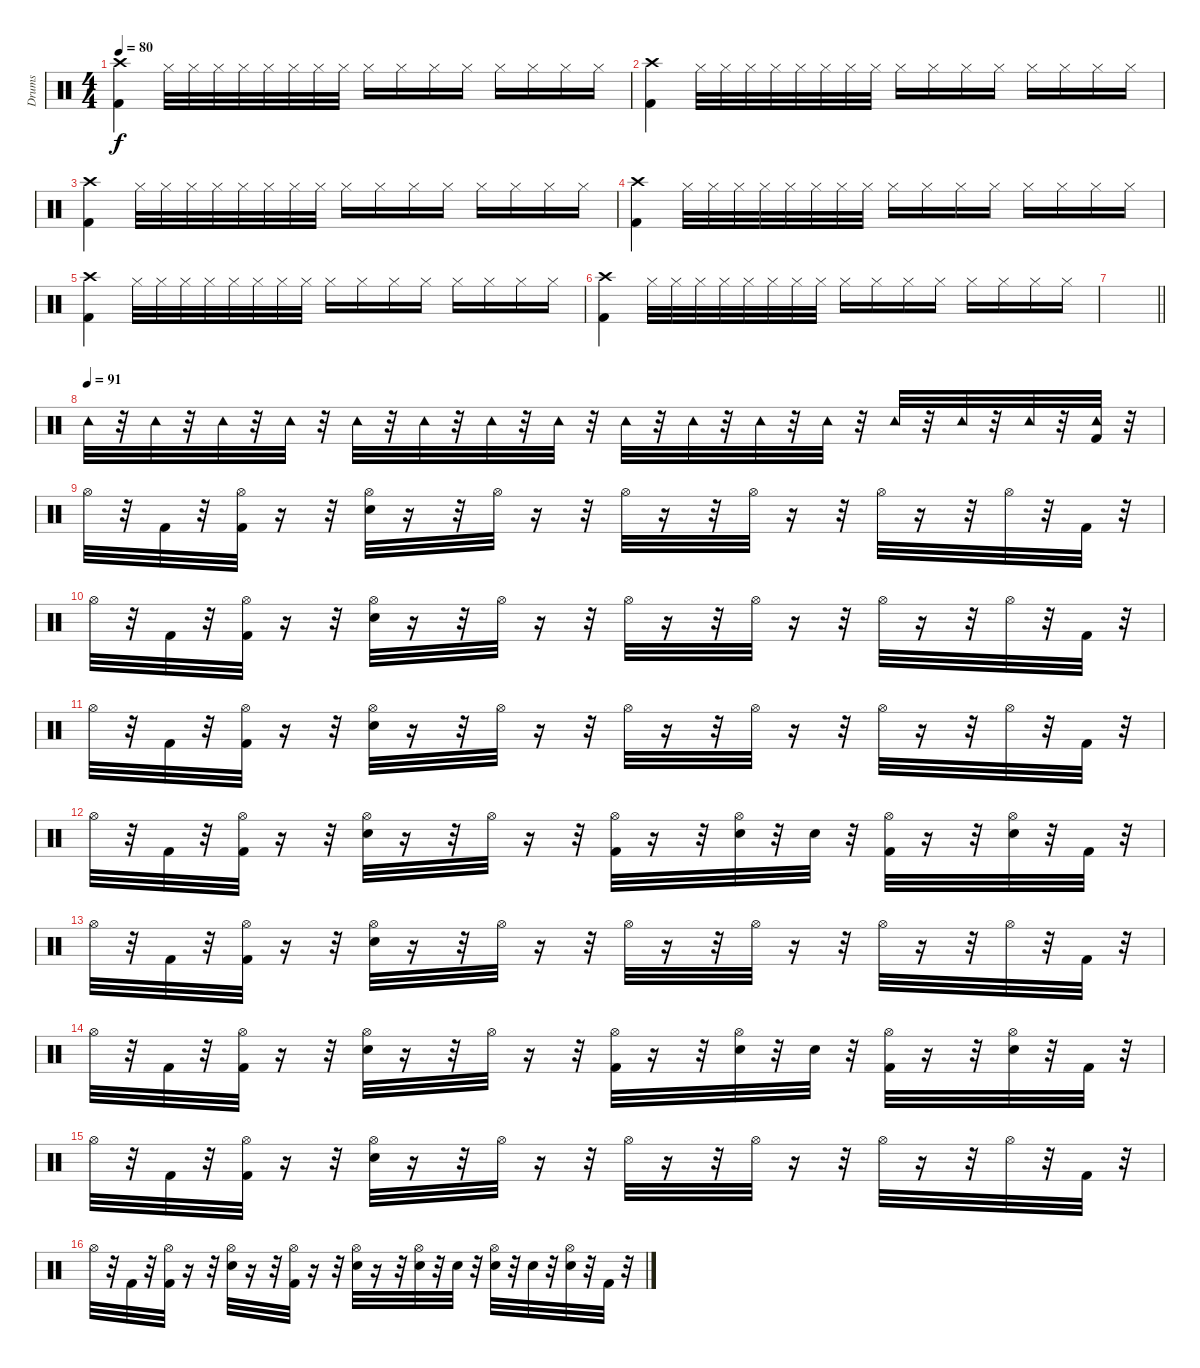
\track ("Drums" "Drums") {instrument percussion}
\staff {score}
\articulation defaults
\ts (4 4)
\tempo 80
\clef neutral
\ks c
("Crash high (hit)" "Kick (hit) 2").4{dy f} "Hi-Hat (closed)".32 "Hi-Hat (closed)".32 "Hi-Hat (closed)".32 "Hi-Hat (closed)".32 "Hi-Hat (closed)".32 "Hi-Hat (closed)".32 "Hi-Hat (closed)".32 "Hi-Hat (closed)".32 "Hi-Hat (closed)".16 "Hi-Hat (closed)".16 "Hi-Hat (closed)".16 "Hi-Hat (closed)".16 "Hi-Hat (closed)".16 "Hi-Hat (closed)".16 "Hi-Hat (closed)".16 "Hi-Hat (closed)".16 |
("Crash high (hit)" "Kick (hit) 2").4 "Hi-Hat (closed)".32 "Hi-Hat (closed)".32 "Hi-Hat (closed)".32 "Hi-Hat (closed)".32 "Hi-Hat (closed)".32 "Hi-Hat (closed)".32 "Hi-Hat (closed)".32 "Hi-Hat (closed)".32 "Hi-Hat (closed)".16 "Hi-Hat (closed)".16 "Hi-Hat (closed)".16 "Hi-Hat (closed)".16 "Hi-Hat (closed)".16 "Hi-Hat (closed)".16 "Hi-Hat (closed)".16 "Hi-Hat (closed)".16 |
("Crash high (hit)" "Kick (hit) 2").4 "Hi-Hat (closed)".32 "Hi-Hat (closed)".32 "Hi-Hat (closed)".32 "Hi-Hat (closed)".32 "Hi-Hat (closed)".32 "Hi-Hat (closed)".32 "Hi-Hat (closed)".32 "Hi-Hat (closed)".32 "Hi-Hat (closed)".16 "Hi-Hat (closed)".16 "Hi-Hat (closed)".16 "Hi-Hat (closed)".16 "Hi-Hat (closed)".16 "Hi-Hat (closed)".16 "Hi-Hat (closed)".16 "Hi-Hat (closed)".16 |
("Crash high (hit)" "Kick (hit) 2").4 "Hi-Hat (closed)".32 "Hi-Hat (closed)".32 "Hi-Hat (closed)".32 "Hi-Hat (closed)".32 "Hi-Hat (closed)".32 "Hi-Hat (closed)".32 "Hi-Hat (closed)".32 "Hi-Hat (closed)".32 "Hi-Hat (closed)".16 "Hi-Hat (closed)".16 "Hi-Hat (closed)".16 "Hi-Hat (closed)".16 "Hi-Hat (closed)".16 "Hi-Hat (closed)".16 "Hi-Hat (closed)".16 "Hi-Hat (closed)".16 |
("Crash high (hit)" "Kick (hit) 2").4 "Hi-Hat (closed)".32 "Hi-Hat (closed)".32 "Hi-Hat (closed)".32 "Hi-Hat (closed)".32 "Hi-Hat (closed)".32 "Hi-Hat (closed)".32 "Hi-Hat (closed)".32 "Hi-Hat (closed)".32 "Hi-Hat (closed)".16 "Hi-Hat (closed)".16 "Hi-Hat (closed)".16 "Hi-Hat (closed)".16 "Hi-Hat (closed)".16 "Hi-Hat (closed)".16 "Hi-Hat (closed)".16 "Hi-Hat (closed)".16 |
("Crash high (hit)" "Kick (hit) 2").4 "Hi-Hat (closed)".32 "Hi-Hat (closed)".32 "Hi-Hat (closed)".32 "Hi-Hat (closed)".32 "Hi-Hat (closed)".32 "Hi-Hat (closed)".32 "Hi-Hat (closed)".32 "Hi-Hat (closed)".32 "Hi-Hat (closed)".16 "Hi-Hat (closed)".16 "Hi-Hat (closed)".16 "Hi-Hat (closed)".16 "Hi-Hat (closed)".16 "Hi-Hat (closed)".16 "Hi-Hat (closed)".16 "Hi-Hat (closed)".16 |
\barLineRight lightlight
|
\tempo (91)
"Tambourine (hit)".32 r.32 "Tambourine (hit)".32 r.32 "Tambourine (hit)".32 r.32 "Tambourine (hit)".32 r.32 "Tambourine (hit)".32 r.32 "Tambourine (hit)".32 r.32 "Tambourine (hit)".32 r.32 "Tambourine (hit)".32 r.32 "Tambourine (hit)".32 r.32 "Tambourine (hit)".32 r.32 "Tambourine (hit)".32 r.32 "Tambourine (hit)".32 r.32 "Tambourine (hit)".32 r.32 "Tambourine (hit)".32 r.32 "Tambourine (hit)".32 r.32 ("Kick (hit) 2" "Tambourine (hit)").32 r.32 |
"Hi-Hat (open)".32 r.32 "Kick (hit) 2".32 r.32 ("Hi-Hat (open)" "Kick (hit) 2").32 r.16 r.32 ("Hi-Hat (open)" "Snare (hit) 2").32 r.16 r.32 "Hi-Hat (open)".32 r.16 r.32 "Hi-Hat (open)".32 r.16 r.32 "Hi-Hat (open)".32 r.16 r.32 "Hi-Hat (open)".32 r.16 r.32 "Hi-Hat (open)".32 r.32 "Kick (hit) 2".32 r.32 |
"Hi-Hat (open)".32 r.32 "Kick (hit) 2".32 r.32 ("Hi-Hat (open)" "Kick (hit) 2").32 r.16 r.32 ("Hi-Hat (open)" "Snare (hit) 2").32 r.16 r.32 "Hi-Hat (open)".32 r.16 r.32 "Hi-Hat (open)".32 r.16 r.32 "Hi-Hat (open)".32 r.16 r.32 "Hi-Hat (open)".32 r.16 r.32 "Hi-Hat (open)".32 r.32 "Kick (hit) 2".32 r.32 |
"Hi-Hat (open)".32 r.32 "Kick (hit) 2".32 r.32 ("Hi-Hat (open)" "Kick (hit) 2").32 r.16 r.32 ("Hi-Hat (open)" "Snare (hit) 2").32 r.16 r.32 "Hi-Hat (open)".32 r.16 r.32 "Hi-Hat (open)".32 r.16 r.32 "Hi-Hat (open)".32 r.16 r.32 "Hi-Hat (open)".32 r.16 r.32 "Hi-Hat (open)".32 r.32 "Kick (hit) 2".32 r.32 |
"Hi-Hat (open)".32 r.32 "Kick (hit) 2".32 r.32 ("Hi-Hat (open)" "Kick (hit) 2").32 r.16 r.32 ("Hi-Hat (open)" "Snare (hit) 2").32 r.16 r.32 "Hi-Hat (open)".32 r.16 r.32 ("Kick (hit) 2" "Hi-Hat (open)").32 r.16 r.32 ("Snare (hit) 2" "Hi-Hat (open)").32 r.32 "Snare (hit) 2".32 r.32 ("Kick (hit) 2" "Hi-Hat (open)").32 r.16 r.32 ("Snare (hit) 2" "Hi-Hat (open)").32 r.32 "Kick (hit) 2".32 r.32 |
"Hi-Hat (open)".32 r.32 "Kick (hit) 2".32 r.32 ("Hi-Hat (open)" "Kick (hit) 2").32 r.16 r.32 ("Hi-Hat (open)" "Snare (hit) 2").32 r.16 r.32 "Hi-Hat (open)".32 r.16 r.32 "Hi-Hat (open)".32 r.16 r.32 "Hi-Hat (open)".32 r.16 r.32 "Hi-Hat (open)".32 r.16 r.32 "Hi-Hat (open)".32 r.32 "Kick (hit) 2".32 r.32 |
"Hi-Hat (open)".32 r.32 "Kick (hit) 2".32 r.32 ("Hi-Hat (open)" "Kick (hit) 2").32 r.16 r.32 ("Hi-Hat (open)" "Snare (hit) 2").32 r.16 r.32 "Hi-Hat (open)".32 r.16 r.32 ("Kick (hit) 2" "Hi-Hat (open)").32 r.16 r.32 ("Snare (hit) 2" "Hi-Hat (open)").32 r.32 "Snare (hit) 2".32 r.32 ("Kick (hit) 2" "Hi-Hat (open)").32 r.16 r.32 ("Snare (hit) 2" "Hi-Hat (open)").32 r.32 "Kick (hit) 2".32 r.32 |
"Hi-Hat (open)".32 r.32 "Kick (hit) 2".32 r.32 ("Hi-Hat (open)" "Kick (hit) 2").32 r.16 r.32 ("Hi-Hat (open)" "Snare (hit) 2").32 r.16 r.32 "Hi-Hat (open)".32 r.16 r.32 "Hi-Hat (open)".32 r.16 r.32 "Hi-Hat (open)".32 r.16 r.32 "Hi-Hat (open)".32 r.16 r.32 "Hi-Hat (open)".32 r.32 "Kick (hit) 2".32 r.32 |
"Hi-Hat (open)".32 r.32 "Kick (hit) 2".32 r.32 ("Hi-Hat (open)" "Kick (hit) 2").32 r.16 r.32 ("Hi-Hat (open)" "Snare (hit) 2").32 r.16 r.32 ("Kick (hit) 2" "Hi-Hat (open)").32 r.16 r.32 ("Snare (hit) 2" "Hi-Hat (open)").32 r.16 r.32 ("Snare (hit) 2" "Hi-Hat (open)").32 r.32 "Snare (hit) 2".32 r.32 ("Snare (hit) 2" "Hi-Hat (open)").32 r.32 "Snare (hit) 2".32 r.32 ("Snare (hit) 2" "Hi-Hat (open)").32 r.32 "Kick (hit) 2".32 r.32
